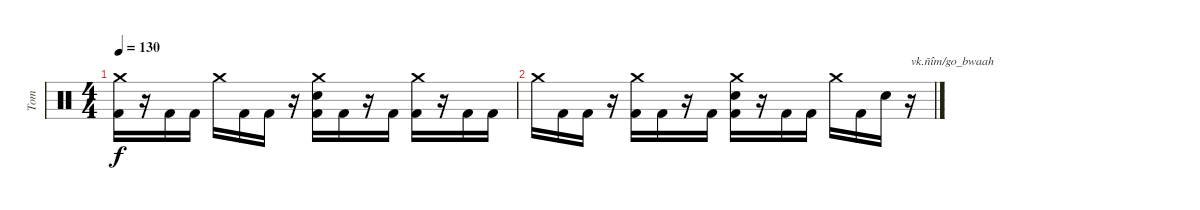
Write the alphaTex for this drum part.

\track ("Tom" "Tom") {instrument percussion}
\staff {score}
\articulation defaults
\ts (4 4)
\tempo 130
\clef neutral
\ks c
("Crash medium (hit)" "Kick (hit) 2").16{dy f} r.16 "Kick (hit) 2".16 "Kick (hit) 2".16 "Crash medium (hit)".16 "Kick (hit) 2".16 "Kick (hit) 2".16 r.16 ("Crash medium (hit)" "Electric Snare (hit)" "Kick (hit) 2").16 "Kick (hit) 2".16 r.16 "Kick (hit) 2".16 ("Crash medium (hit)" "Kick (hit) 2").16 r.16 "Kick (hit) 2".16 "Kick (hit) 2".16 |
"Crash medium (hit)".16 "Kick (hit) 2".16 "Kick (hit) 2".16 r.16 ("Crash medium (hit)" "Kick (hit) 2").16 "Kick (hit) 2".16 r.16 "Kick (hit) 2".16 ("Crash medium (hit)" "Electric Snare (hit)" "Kick (hit) 2").16 r.16 "Kick (hit) 2".16 "Kick (hit) 2".16 "Crash medium (hit)".16 "Kick (hit) 2".16 "Electric Snare (hit)".16 r.16{txt "vk.ñîm/go_bwaah"}
